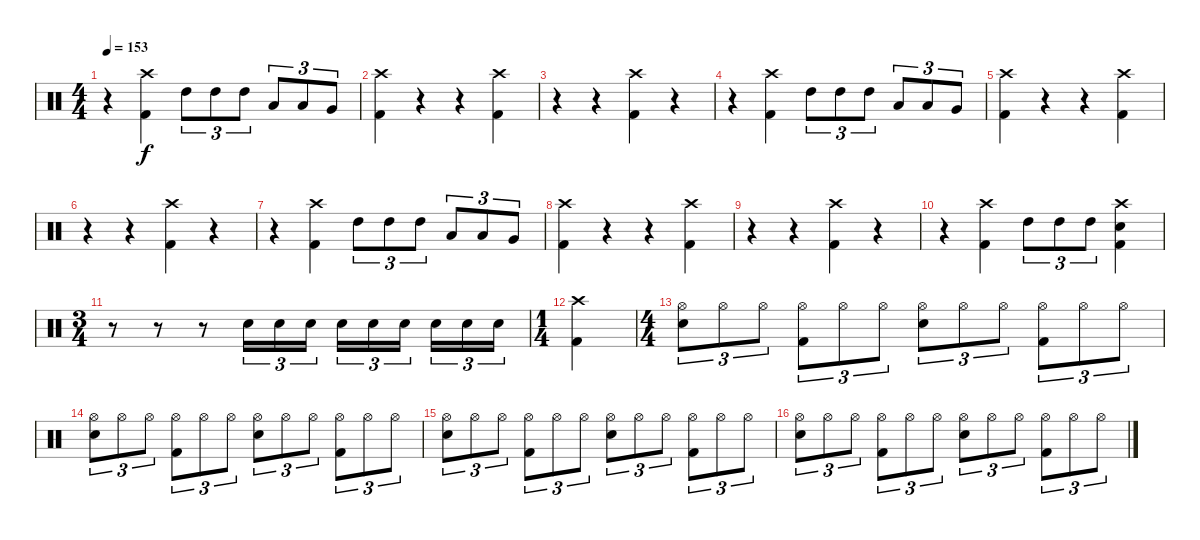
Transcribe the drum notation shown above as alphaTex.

\track "" {instrument percussion}
\staff {score}
\articulation defaults
\ts (4 4)
\tempo 153
\clef neutral
\ks c
r.4{dy f} ("Crash high (hit)" "Kick (hit) 2").4{volume 13} "High Tom (hit)".8{tu (3 2)} "High Tom (hit)".8{tu (3 2)} "High Tom (hit)".8{tu (3 2)} "Low Tom (hit)".8{tu (3 2)} "Low Tom (hit)".8{tu (3 2)} "Very Low Tom (hit)".8{tu (3 2)} |
("Crash high (hit)" "Kick (hit) 2").4 r.4{volume 0} r.4 ("Crash high (hit)" "Kick (hit) 2").4{volume 16} |
r.4{volume 0} r.4 ("Crash high (hit)" "Kick (hit) 2").4{volume 16} r.4{volume 0} |
r.4 ("Crash high (hit)" "Kick (hit) 2").4{volume 13} "High Tom (hit)".8{tu (3 2)} "High Tom (hit)".8{tu (3 2)} "High Tom (hit)".8{tu (3 2)} "Low Tom (hit)".8{tu (3 2)} "Low Tom (hit)".8{tu (3 2)} "Very Low Tom (hit)".8{tu (3 2)} |
("Crash high (hit)" "Kick (hit) 2").4 r.4{volume 0} r.4 ("Crash high (hit)" "Kick (hit) 2").4{volume 16} |
r.4{volume 0} r.4 ("Crash high (hit)" "Kick (hit) 2").4{volume 16} r.4{volume 0} |
r.4 ("Crash high (hit)" "Kick (hit) 2").4{volume 13} "High Tom (hit)".8{tu (3 2)} "High Tom (hit)".8{tu (3 2)} "High Tom (hit)".8{tu (3 2)} "Low Tom (hit)".8{tu (3 2)} "Low Tom (hit)".8{tu (3 2)} "Very Low Tom (hit)".8{tu (3 2)} |
("Crash high (hit)" "Kick (hit) 2").4 r.4{volume 0} r.4 ("Crash high (hit)" "Kick (hit) 2").4{volume 16} |
r.4{volume 0} r.4 ("Crash high (hit)" "Kick (hit) 2").4{volume 16} r.4{volume 0} |
r.4 ("Crash high (hit)" "Kick (hit) 2").4{volume 13} "High Tom (hit)".8{tu (3 2)} "High Tom (hit)".8{tu (3 2)} "High Tom (hit)".8{tu (3 2)} ("Crash high (hit)" "Electric Snare (hit)" "Kick (hit) 2").4 |
\ts (3 4)
\section ("" "")
r.8 r.8 r.8 "Electric Snare (hit)".16{tu (3 2)} "Electric Snare (hit)".16{tu (3 2)} "Electric Snare (hit)".16{tu (3 2)} "Electric Snare (hit)".16{tu (3 2)} "Electric Snare (hit)".16{tu (3 2)} "Electric Snare (hit)".16{tu (3 2)} "Electric Snare (hit)".16{tu (3 2)} "Electric Snare (hit)".16{tu (3 2)} "Electric Snare (hit)".16{tu (3 2)} |
\ts (1 4)
("Crash high (hit)" "Kick (hit) 2").4 |
\ts (4 4)
("Hi-Hat (open)" "Electric Snare (hit)").8{tu (3 2)} "Hi-Hat (open)".8{tu (3 2)} "Hi-Hat (open)".8{tu (3 2)} ("Hi-Hat (open)" "Kick (hit) 2").8{tu (3 2)} "Hi-Hat (open)".8{tu (3 2)} "Hi-Hat (open)".8{tu (3 2)} ("Hi-Hat (open)" "Electric Snare (hit)").8{tu (3 2)} "Hi-Hat (open)".8{tu (3 2)} "Hi-Hat (open)".8{tu (3 2)} ("Hi-Hat (open)" "Kick (hit) 2").8{tu (3 2)} "Hi-Hat (open)".8{tu (3 2)} "Hi-Hat (open)".8{tu (3 2)} |
("Hi-Hat (open)" "Electric Snare (hit)").8{tu (3 2)} "Hi-Hat (open)".8{tu (3 2)} "Hi-Hat (open)".8{tu (3 2)} ("Hi-Hat (open)" "Kick (hit) 2").8{tu (3 2)} "Hi-Hat (open)".8{tu (3 2)} "Hi-Hat (open)".8{tu (3 2)} ("Hi-Hat (open)" "Electric Snare (hit)").8{tu (3 2)} "Hi-Hat (open)".8{tu (3 2)} "Hi-Hat (open)".8{tu (3 2)} ("Hi-Hat (open)" "Kick (hit) 2").8{tu (3 2)} "Hi-Hat (open)".8{tu (3 2)} "Hi-Hat (open)".8{tu (3 2)} |
("Hi-Hat (open)" "Electric Snare (hit)").8{tu (3 2)} "Hi-Hat (open)".8{tu (3 2)} "Hi-Hat (open)".8{tu (3 2)} ("Hi-Hat (open)" "Kick (hit) 2").8{tu (3 2)} "Hi-Hat (open)".8{tu (3 2)} "Hi-Hat (open)".8{tu (3 2)} ("Hi-Hat (open)" "Electric Snare (hit)").8{tu (3 2)} "Hi-Hat (open)".8{tu (3 2)} "Hi-Hat (open)".8{tu (3 2)} ("Hi-Hat (open)" "Kick (hit) 2").8{tu (3 2)} "Hi-Hat (open)".8{tu (3 2)} "Hi-Hat (open)".8{tu (3 2)} |
("Hi-Hat (open)" "Electric Snare (hit)").8{tu (3 2)} "Hi-Hat (open)".8{tu (3 2)} "Hi-Hat (open)".8{tu (3 2)} ("Hi-Hat (open)" "Kick (hit) 2").8{tu (3 2)} "Hi-Hat (open)".8{tu (3 2)} "Hi-Hat (open)".8{tu (3 2)} ("Hi-Hat (open)" "Electric Snare (hit)").8{tu (3 2)} "Hi-Hat (open)".8{tu (3 2)} "Hi-Hat (open)".8{tu (3 2)} ("Hi-Hat (open)" "Kick (hit) 2").8{tu (3 2)} "Hi-Hat (open)".8{tu (3 2)} "Hi-Hat (open)".8{tu (3 2)}
